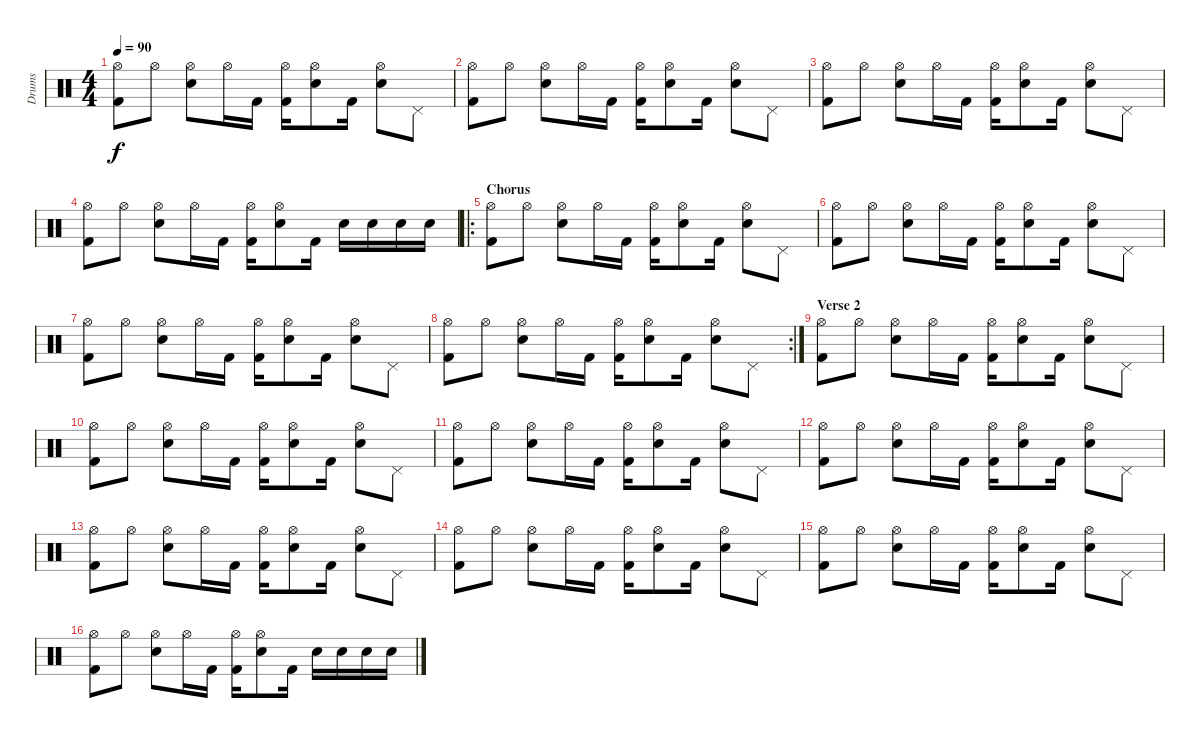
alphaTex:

\track ("Drums" "Drums") {instrument percussion}
\staff {score}
\articulation defaults
\ts (4 4)
\tempo 90
\clef neutral
\ks c
("Kick (hit) 2" "Hi-Hat (open)").8{dy f} "Hi-Hat (open)".8 ("Electric Snare (hit)" "Hi-Hat (open)").8 "Hi-Hat (open)".16 "Kick (hit) 2".16 ("Kick (hit) 2" "Hi-Hat (open)").16 ("Electric Snare (hit)" "Hi-Hat (open)").8 "Kick (hit) 2".16 ("Electric Snare (hit)" "Hi-Hat (open)").8 "Pedal Hi-Hat (hit)".8 |
("Kick (hit) 2" "Hi-Hat (open)").8 "Hi-Hat (open)".8 ("Electric Snare (hit)" "Hi-Hat (open)").8 "Hi-Hat (open)".16 "Kick (hit) 2".16 ("Kick (hit) 2" "Hi-Hat (open)").16 ("Electric Snare (hit)" "Hi-Hat (open)").8 "Kick (hit) 2".16 ("Electric Snare (hit)" "Hi-Hat (open)").8 "Pedal Hi-Hat (hit)".8 |
("Kick (hit) 2" "Hi-Hat (open)").8 "Hi-Hat (open)".8 ("Electric Snare (hit)" "Hi-Hat (open)").8 "Hi-Hat (open)".16 "Kick (hit) 2".16 ("Kick (hit) 2" "Hi-Hat (open)").16 ("Electric Snare (hit)" "Hi-Hat (open)").8 "Kick (hit) 2".16 ("Electric Snare (hit)" "Hi-Hat (open)").8 "Pedal Hi-Hat (hit)".8 |
("Kick (hit) 2" "Hi-Hat (open)").8 "Hi-Hat (open)".8 ("Electric Snare (hit)" "Hi-Hat (open)").8 "Hi-Hat (open)".16 "Kick (hit) 2".16 ("Kick (hit) 2" "Hi-Hat (open)").16 ("Electric Snare (hit)" "Hi-Hat (open)").8 "Kick (hit) 2".16 "Electric Snare (hit)".16 "Electric Snare (hit)".16 "Electric Snare (hit)".16 "Electric Snare (hit)".16 |
\ro
\section ("" "Chorus")
("Kick (hit) 2" "Hi-Hat (open)").8 "Hi-Hat (open)".8 ("Electric Snare (hit)" "Hi-Hat (open)").8 "Hi-Hat (open)".16 "Kick (hit) 2".16 ("Kick (hit) 2" "Hi-Hat (open)").16 ("Electric Snare (hit)" "Hi-Hat (open)").8 "Kick (hit) 2".16 ("Electric Snare (hit)" "Hi-Hat (open)").8 "Pedal Hi-Hat (hit)".8 |
("Kick (hit) 2" "Hi-Hat (open)").8 "Hi-Hat (open)".8 ("Electric Snare (hit)" "Hi-Hat (open)").8 "Hi-Hat (open)".16 "Kick (hit) 2".16 ("Kick (hit) 2" "Hi-Hat (open)").16 ("Electric Snare (hit)" "Hi-Hat (open)").8 "Kick (hit) 2".16 ("Electric Snare (hit)" "Hi-Hat (open)").8 "Pedal Hi-Hat (hit)".8 |
("Kick (hit) 2" "Hi-Hat (open)").8 "Hi-Hat (open)".8 ("Electric Snare (hit)" "Hi-Hat (open)").8 "Hi-Hat (open)".16 "Kick (hit) 2".16 ("Kick (hit) 2" "Hi-Hat (open)").16 ("Electric Snare (hit)" "Hi-Hat (open)").8 "Kick (hit) 2".16 ("Electric Snare (hit)" "Hi-Hat (open)").8 "Pedal Hi-Hat (hit)".8 |
\rc 2
("Kick (hit) 2" "Hi-Hat (open)").8 "Hi-Hat (open)".8 ("Electric Snare (hit)" "Hi-Hat (open)").8 "Hi-Hat (open)".16 "Kick (hit) 2".16 ("Kick (hit) 2" "Hi-Hat (open)").16 ("Electric Snare (hit)" "Hi-Hat (open)").8 "Kick (hit) 2".16 ("Electric Snare (hit)" "Hi-Hat (open)").8 "Pedal Hi-Hat (hit)".8 |
\section ("" "Verse 2")
("Kick (hit) 2" "Hi-Hat (open)").8 "Hi-Hat (open)".8 ("Electric Snare (hit)" "Hi-Hat (open)").8 "Hi-Hat (open)".16 "Kick (hit) 2".16 ("Kick (hit) 2" "Hi-Hat (open)").16 ("Electric Snare (hit)" "Hi-Hat (open)").8 "Kick (hit) 2".16 ("Electric Snare (hit)" "Hi-Hat (open)").8 "Pedal Hi-Hat (hit)".8 |
("Kick (hit) 2" "Hi-Hat (open)").8 "Hi-Hat (open)".8 ("Electric Snare (hit)" "Hi-Hat (open)").8 "Hi-Hat (open)".16 "Kick (hit) 2".16 ("Kick (hit) 2" "Hi-Hat (open)").16 ("Electric Snare (hit)" "Hi-Hat (open)").8 "Kick (hit) 2".16 ("Electric Snare (hit)" "Hi-Hat (open)").8 "Pedal Hi-Hat (hit)".8 |
("Kick (hit) 2" "Hi-Hat (open)").8 "Hi-Hat (open)".8 ("Electric Snare (hit)" "Hi-Hat (open)").8 "Hi-Hat (open)".16 "Kick (hit) 2".16 ("Kick (hit) 2" "Hi-Hat (open)").16 ("Electric Snare (hit)" "Hi-Hat (open)").8 "Kick (hit) 2".16 ("Electric Snare (hit)" "Hi-Hat (open)").8 "Pedal Hi-Hat (hit)".8 |
("Kick (hit) 2" "Hi-Hat (open)").8 "Hi-Hat (open)".8 ("Electric Snare (hit)" "Hi-Hat (open)").8 "Hi-Hat (open)".16 "Kick (hit) 2".16 ("Kick (hit) 2" "Hi-Hat (open)").16 ("Electric Snare (hit)" "Hi-Hat (open)").8 "Kick (hit) 2".16 ("Electric Snare (hit)" "Hi-Hat (open)").8 "Pedal Hi-Hat (hit)".8 |
("Kick (hit) 2" "Hi-Hat (open)").8 "Hi-Hat (open)".8 ("Electric Snare (hit)" "Hi-Hat (open)").8 "Hi-Hat (open)".16 "Kick (hit) 2".16 ("Kick (hit) 2" "Hi-Hat (open)").16 ("Electric Snare (hit)" "Hi-Hat (open)").8 "Kick (hit) 2".16 ("Electric Snare (hit)" "Hi-Hat (open)").8 "Pedal Hi-Hat (hit)".8 |
("Kick (hit) 2" "Hi-Hat (open)").8 "Hi-Hat (open)".8 ("Electric Snare (hit)" "Hi-Hat (open)").8 "Hi-Hat (open)".16 "Kick (hit) 2".16 ("Kick (hit) 2" "Hi-Hat (open)").16 ("Electric Snare (hit)" "Hi-Hat (open)").8 "Kick (hit) 2".16 ("Electric Snare (hit)" "Hi-Hat (open)").8 "Pedal Hi-Hat (hit)".8 |
("Kick (hit) 2" "Hi-Hat (open)").8 "Hi-Hat (open)".8 ("Electric Snare (hit)" "Hi-Hat (open)").8 "Hi-Hat (open)".16 "Kick (hit) 2".16 ("Kick (hit) 2" "Hi-Hat (open)").16 ("Electric Snare (hit)" "Hi-Hat (open)").8 "Kick (hit) 2".16 ("Electric Snare (hit)" "Hi-Hat (open)").8 "Pedal Hi-Hat (hit)".8 |
("Kick (hit) 2" "Hi-Hat (open)").8 "Hi-Hat (open)".8 ("Electric Snare (hit)" "Hi-Hat (open)").8 "Hi-Hat (open)".16 "Kick (hit) 2".16 ("Kick (hit) 2" "Hi-Hat (open)").16 ("Electric Snare (hit)" "Hi-Hat (open)").8 "Kick (hit) 2".16 "Electric Snare (hit)".16 "Electric Snare (hit)".16 "Electric Snare (hit)".16 "Electric Snare (hit)".16
